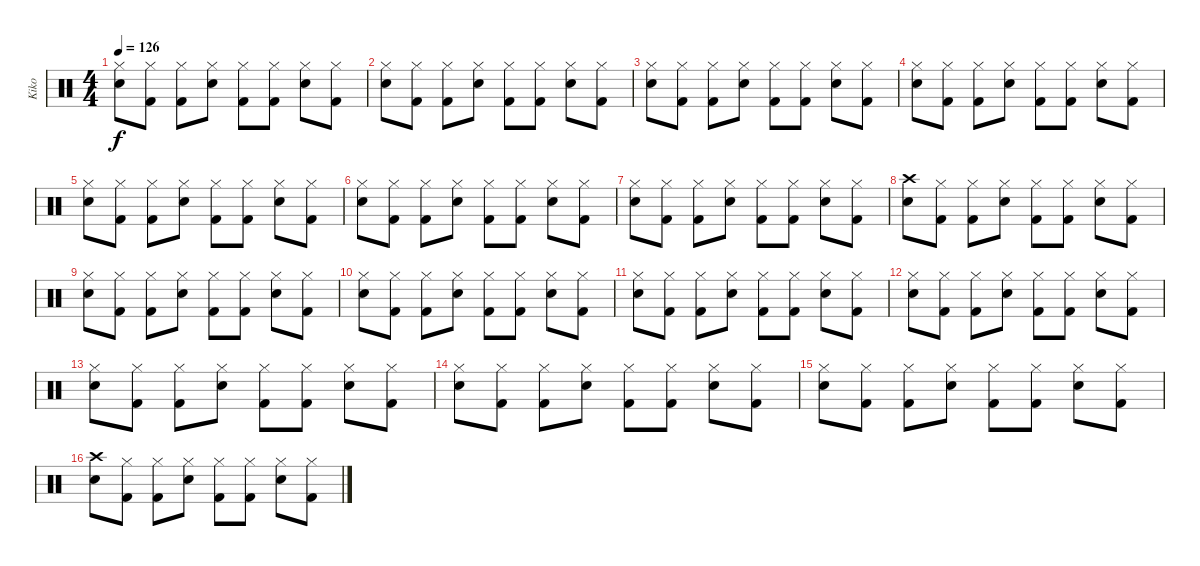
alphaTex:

\track ("Kiko" "Kiko") {instrument percussion}
\staff {score}
\articulation defaults
\ts (4 4)
\tempo 126
\clef neutral
\ks c
("Hi-Hat (closed)" "Electric Snare (hit)").8{dy f} ("Hi-Hat (closed)" "Kick (hit) 2").8 ("Hi-Hat (closed)" "Kick (hit) 2").8 ("Hi-Hat (closed)" "Electric Snare (hit)").8 ("Hi-Hat (closed)" "Kick (hit) 2").8 ("Hi-Hat (closed)" "Kick (hit) 2").8 ("Hi-Hat (closed)" "Electric Snare (hit)").8 ("Hi-Hat (closed)" "Kick (hit) 2").8 |
("Hi-Hat (closed)" "Electric Snare (hit)").8 ("Hi-Hat (closed)" "Kick (hit) 2").8 ("Hi-Hat (closed)" "Kick (hit) 2").8 ("Hi-Hat (closed)" "Electric Snare (hit)").8 ("Hi-Hat (closed)" "Kick (hit) 2").8 ("Hi-Hat (closed)" "Kick (hit) 2").8 ("Hi-Hat (closed)" "Electric Snare (hit)").8 ("Hi-Hat (closed)" "Kick (hit) 2").8 |
("Hi-Hat (closed)" "Electric Snare (hit)").8 ("Hi-Hat (closed)" "Kick (hit) 2").8 ("Hi-Hat (closed)" "Kick (hit) 2").8 ("Hi-Hat (closed)" "Electric Snare (hit)").8 ("Hi-Hat (closed)" "Kick (hit) 2").8 ("Hi-Hat (closed)" "Kick (hit) 2").8 ("Hi-Hat (closed)" "Electric Snare (hit)").8 ("Hi-Hat (closed)" "Kick (hit) 2").8 |
("Hi-Hat (closed)" "Electric Snare (hit)").8 ("Hi-Hat (closed)" "Kick (hit) 2").8 ("Hi-Hat (closed)" "Kick (hit) 2").8 ("Hi-Hat (closed)" "Electric Snare (hit)").8 ("Hi-Hat (closed)" "Kick (hit) 2").8 ("Hi-Hat (closed)" "Kick (hit) 2").8 ("Hi-Hat (closed)" "Electric Snare (hit)").8 ("Hi-Hat (closed)" "Kick (hit) 2").8 |
("Hi-Hat (closed)" "Electric Snare (hit)").8 ("Hi-Hat (closed)" "Kick (hit) 2").8 ("Hi-Hat (closed)" "Kick (hit) 2").8 ("Hi-Hat (closed)" "Electric Snare (hit)").8 ("Hi-Hat (closed)" "Kick (hit) 2").8 ("Hi-Hat (closed)" "Kick (hit) 2").8 ("Hi-Hat (closed)" "Electric Snare (hit)").8 ("Hi-Hat (closed)" "Kick (hit) 2").8 |
("Hi-Hat (closed)" "Electric Snare (hit)").8 ("Hi-Hat (closed)" "Kick (hit) 2").8 ("Hi-Hat (closed)" "Kick (hit) 2").8 ("Hi-Hat (closed)" "Electric Snare (hit)").8 ("Hi-Hat (closed)" "Kick (hit) 2").8 ("Hi-Hat (closed)" "Kick (hit) 2").8 ("Hi-Hat (closed)" "Electric Snare (hit)").8 ("Hi-Hat (closed)" "Kick (hit) 2").8 |
("Hi-Hat (closed)" "Electric Snare (hit)").8 ("Hi-Hat (closed)" "Kick (hit) 2").8 ("Hi-Hat (closed)" "Kick (hit) 2").8 ("Hi-Hat (closed)" "Electric Snare (hit)").8 ("Hi-Hat (closed)" "Kick (hit) 2").8 ("Hi-Hat (closed)" "Kick (hit) 2").8 ("Hi-Hat (closed)" "Electric Snare (hit)").8 ("Hi-Hat (closed)" "Kick (hit) 2").8 |
("Crash high (hit)" "Electric Snare (hit)").8 ("Hi-Hat (closed)" "Kick (hit) 2").8 ("Hi-Hat (closed)" "Kick (hit) 2").8 ("Hi-Hat (closed)" "Electric Snare (hit)").8 ("Hi-Hat (closed)" "Kick (hit) 2").8 ("Hi-Hat (closed)" "Kick (hit) 2").8 ("Hi-Hat (closed)" "Electric Snare (hit)").8 ("Hi-Hat (closed)" "Kick (hit) 2").8 |
("Hi-Hat (closed)" "Electric Snare (hit)").8 ("Hi-Hat (closed)" "Kick (hit) 2").8 ("Hi-Hat (closed)" "Kick (hit) 2").8 ("Hi-Hat (closed)" "Electric Snare (hit)").8 ("Hi-Hat (closed)" "Kick (hit) 2").8 ("Hi-Hat (closed)" "Kick (hit) 2").8 ("Hi-Hat (closed)" "Electric Snare (hit)").8 ("Hi-Hat (closed)" "Kick (hit) 2").8 |
("Hi-Hat (closed)" "Electric Snare (hit)").8 ("Hi-Hat (closed)" "Kick (hit) 2").8 ("Hi-Hat (closed)" "Kick (hit) 2").8 ("Hi-Hat (closed)" "Electric Snare (hit)").8 ("Hi-Hat (closed)" "Kick (hit) 2").8 ("Hi-Hat (closed)" "Kick (hit) 2").8 ("Hi-Hat (closed)" "Electric Snare (hit)").8 ("Hi-Hat (closed)" "Kick (hit) 2").8 |
("Hi-Hat (closed)" "Electric Snare (hit)").8 ("Hi-Hat (closed)" "Kick (hit) 2").8 ("Hi-Hat (closed)" "Kick (hit) 2").8 ("Hi-Hat (closed)" "Electric Snare (hit)").8 ("Hi-Hat (closed)" "Kick (hit) 2").8 ("Hi-Hat (closed)" "Kick (hit) 2").8 ("Hi-Hat (closed)" "Electric Snare (hit)").8 ("Hi-Hat (closed)" "Kick (hit) 2").8 |
("Hi-Hat (closed)" "Electric Snare (hit)").8 ("Hi-Hat (closed)" "Kick (hit) 2").8 ("Hi-Hat (closed)" "Kick (hit) 2").8 ("Hi-Hat (closed)" "Electric Snare (hit)").8 ("Hi-Hat (closed)" "Kick (hit) 2").8 ("Hi-Hat (closed)" "Kick (hit) 2").8 ("Hi-Hat (closed)" "Electric Snare (hit)").8 ("Hi-Hat (closed)" "Kick (hit) 2").8 |
("Hi-Hat (closed)" "Electric Snare (hit)").8 ("Hi-Hat (closed)" "Kick (hit) 2").8 ("Hi-Hat (closed)" "Kick (hit) 2").8 ("Hi-Hat (closed)" "Electric Snare (hit)").8 ("Hi-Hat (closed)" "Kick (hit) 2").8 ("Hi-Hat (closed)" "Kick (hit) 2").8 ("Hi-Hat (closed)" "Electric Snare (hit)").8 ("Hi-Hat (closed)" "Kick (hit) 2").8 |
("Hi-Hat (closed)" "Electric Snare (hit)").8 ("Hi-Hat (closed)" "Kick (hit) 2").8 ("Hi-Hat (closed)" "Kick (hit) 2").8 ("Hi-Hat (closed)" "Electric Snare (hit)").8 ("Hi-Hat (closed)" "Kick (hit) 2").8 ("Hi-Hat (closed)" "Kick (hit) 2").8 ("Hi-Hat (closed)" "Electric Snare (hit)").8 ("Hi-Hat (closed)" "Kick (hit) 2").8 |
("Hi-Hat (closed)" "Electric Snare (hit)").8 ("Hi-Hat (closed)" "Kick (hit) 2").8 ("Hi-Hat (closed)" "Kick (hit) 2").8 ("Hi-Hat (closed)" "Electric Snare (hit)").8 ("Hi-Hat (closed)" "Kick (hit) 2").8 ("Hi-Hat (closed)" "Kick (hit) 2").8 ("Hi-Hat (closed)" "Electric Snare (hit)").8 ("Hi-Hat (closed)" "Kick (hit) 2").8 |
("Crash high (hit)" "Electric Snare (hit)").8 ("Hi-Hat (closed)" "Kick (hit) 2").8 ("Hi-Hat (closed)" "Kick (hit) 2").8 ("Hi-Hat (closed)" "Electric Snare (hit)").8 ("Hi-Hat (closed)" "Kick (hit) 2").8 ("Hi-Hat (closed)" "Kick (hit) 2").8 ("Hi-Hat (closed)" "Electric Snare (hit)").8 ("Hi-Hat (closed)" "Kick (hit) 2").8
